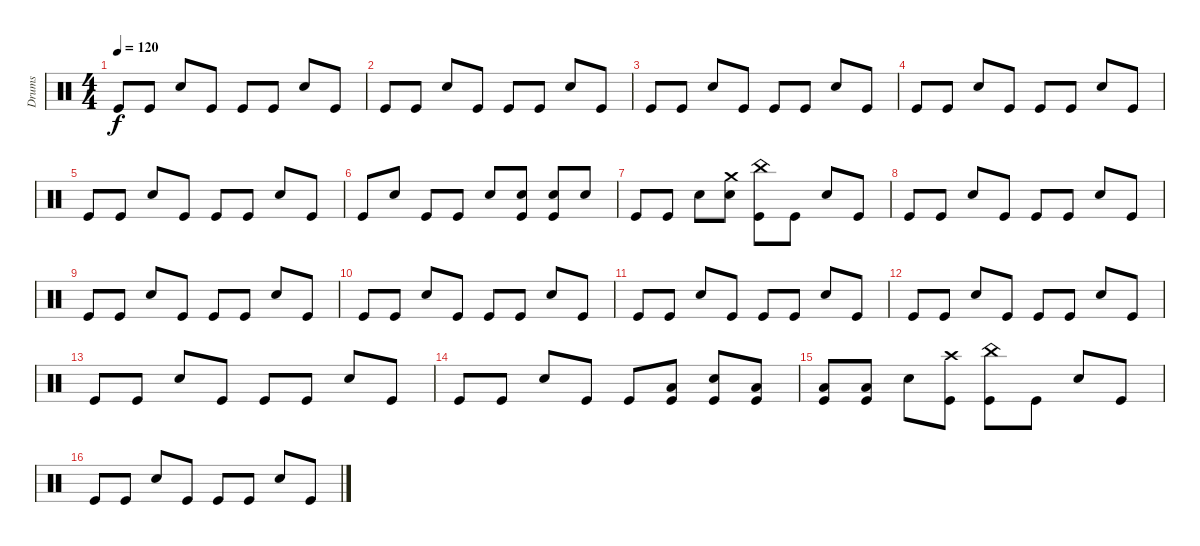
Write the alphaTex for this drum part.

\track ("Drums" "Drums") {instrument percussion}
\staff {score}
\articulation defaults
\ts (4 4)
\tempo 120
\clef neutral
\ks c "Kick (hit)".8{dy f} "Kick (hit)".8 "Snare (hit) 2".8 "Kick (hit)".8 "Kick (hit)".8 "Kick (hit)".8 "Snare (hit) 2".8 "Kick (hit)".8
|
"Kick (hit)".8 "Kick (hit)".8 "Snare (hit) 2".8 "Kick (hit)".8 "Kick (hit)".8 "Kick (hit)".8 "Snare (hit) 2".8 "Kick (hit)".8 |
"Kick (hit)".8 "Kick (hit)".8 "Snare (hit) 2".8 "Kick (hit)".8 "Kick (hit)".8 "Kick (hit)".8 "Snare (hit) 2".8 "Kick (hit)".8 |
"Kick (hit)".8 "Kick (hit)".8 "Snare (hit) 2".8 "Kick (hit)".8 "Kick (hit)".8 "Kick (hit)".8 "Snare (hit) 2".8 "Kick (hit)".8 |
"Kick (hit)".8 "Kick (hit)".8 "Snare (hit) 2".8 "Kick (hit)".8 "Kick (hit)".8 "Kick (hit)".8 "Snare (hit) 2".8 "Kick (hit)".8 |
"Kick (hit)".8 "Snare (hit) 2".8 "Kick (hit)".8 "Kick (hit)".8 "Snare (hit) 2".8 ("Kick (hit)" "Snare (hit) 2").8 ("Kick (hit)" "Snare (hit) 2").8 "Snare (hit) 2".8 |
"Kick (hit)".8 "Kick (hit)".8 "Snare (hit) 2".8 ("Crash medium (hit)" "Snare (hit) 2").8 ("China (hit)" "Kick (hit)").8 "Kick (hit)".8 "Snare (hit) 2".8 "Kick (hit)".8 |
"Kick (hit)".8 "Kick (hit)".8 "Snare (hit) 2".8 "Kick (hit)".8 "Kick (hit)".8 "Kick (hit)".8 "Snare (hit) 2".8 "Kick (hit)".8 |
"Kick (hit)".8 "Kick (hit)".8 "Snare (hit) 2".8 "Kick (hit)".8 "Kick (hit)".8 "Kick (hit)".8 "Snare (hit) 2".8 "Kick (hit)".8 |
"Kick (hit)".8 "Kick (hit)".8 "Snare (hit) 2".8 "Kick (hit)".8 "Kick (hit)".8 "Kick (hit)".8 "Snare (hit) 2".8 "Kick (hit)".8 |
"Kick (hit)".8 "Kick (hit)".8 "Snare (hit) 2".8 "Kick (hit)".8 "Kick (hit)".8 "Kick (hit)".8 "Snare (hit) 2".8 "Kick (hit)".8 |
"Kick (hit)".8 "Kick (hit)".8 "Snare (hit) 2".8 "Kick (hit)".8 "Kick (hit)".8 "Kick (hit)".8 "Snare (hit) 2".8 "Kick (hit)".8 |
"Kick (hit)".8 "Kick (hit)".8 "Snare (hit) 2".8 "Kick (hit)".8 "Kick (hit)".8 "Kick (hit)".8 "Snare (hit) 2".8 "Kick (hit)".8 |
"Kick (hit)".8 "Kick (hit)".8 "Snare (hit) 2".8 "Kick (hit)".8 "Kick (hit)".8 ("Low Floor Tom (hit)" "Kick (hit)").8 ("Snare (hit) 2" "Kick (hit)").8 ("Low Floor Tom (hit)" "Kick (hit)").8 |
("Low Floor Tom (hit)" "Kick (hit)").8 ("Low Floor Tom (hit)" "Kick (hit)").8 "Snare (hit) 2".8 ("Crash high (hit)" "Kick (hit)").8 ("China (hit)" "Kick (hit)").8 "Kick (hit)".8 "Snare (hit) 2".8 "Kick (hit)".8 |
"Kick (hit)".8 "Kick (hit)".8 "Snare (hit) 2".8 "Kick (hit)".8 "Kick (hit)".8 "Kick (hit)".8 "Snare (hit) 2".8 "Kick (hit)".8
